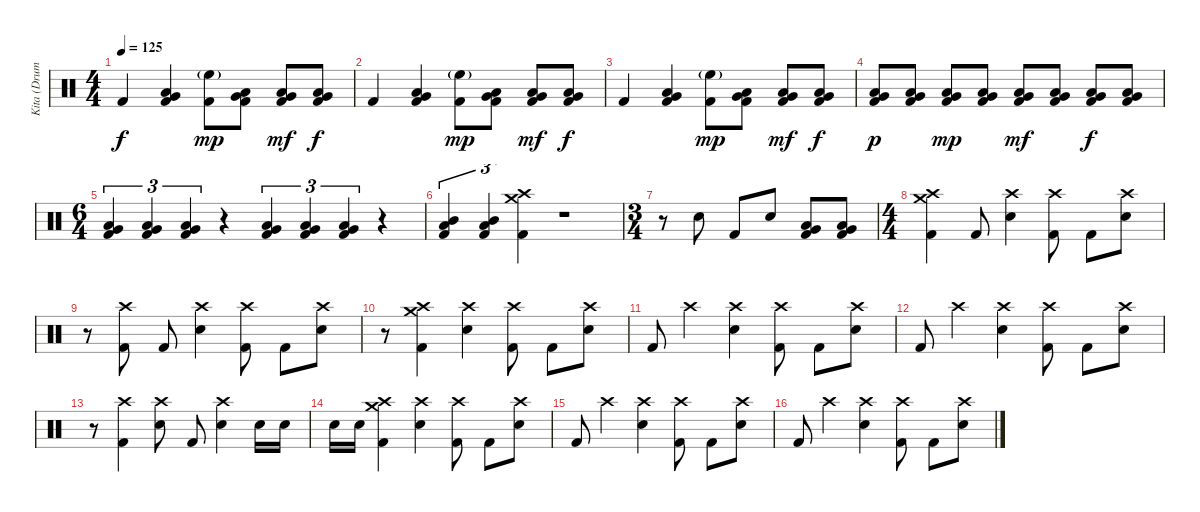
\track ("Kita (Drums)" "Kita (Drum") {instrument percussion}
\staff {score}
\articulation defaults
\ts (4 4)
\tempo 125
\clef neutral
\ks c "Kick (hit) 2".4{dy f}
("Very Low Tom (hit)" "Low Tom (hit)" "Kick (hit) 2").4 ("High Floor Tom (hit)"{g} "Kick (hit) 2").8{dy mp} ("Very Low Tom (hit)" "Low Tom (hit)" "Kick (hit) 2").8 ("Very Low Tom (hit)" "Low Tom (hit)" "Kick (hit) 2").8{dy mf} ("Low Floor Tom (hit)" "Very Low Tom (hit)" "Kick (hit) 2").8{dy f} |
"Kick (hit) 2".4 ("Very Low Tom (hit)" "Low Tom (hit)" "Kick (hit) 2").4 ("High Floor Tom (hit)"{g} "Kick (hit) 2").8{dy mp} ("Very Low Tom (hit)" "Low Tom (hit)" "Kick (hit) 2").8 ("Very Low Tom (hit)" "Low Tom (hit)" "Kick (hit) 2").8{dy mf} ("Low Floor Tom (hit)" "Very Low Tom (hit)" "Kick (hit) 2").8{dy f} |
"Kick (hit) 2".4 ("Very Low Tom (hit)" "Low Tom (hit)" "Kick (hit) 2").4 ("High Floor Tom (hit)"{g} "Kick (hit) 2").8{dy mp} ("Very Low Tom (hit)" "Low Tom (hit)" "Kick (hit) 2").8 ("Very Low Tom (hit)" "Low Tom (hit)" "Kick (hit) 2").8{dy mf} ("Low Floor Tom (hit)" "Very Low Tom (hit)" "Kick (hit) 2").8{dy f} |
("Low Floor Tom (hit)" "Very Low Tom (hit)" "Kick (hit) 2").8{dy p} ("Low Floor Tom (hit)" "Very Low Tom (hit)" "Kick (hit) 2").8 ("Low Floor Tom (hit)" "Very Low Tom (hit)" "Kick (hit) 2").8{dy mp} ("Low Floor Tom (hit)" "Very Low Tom (hit)" "Kick (hit) 2").8 ("Low Floor Tom (hit)" "Very Low Tom (hit)" "Kick (hit) 2").8{dy mf} ("Low Floor Tom (hit)" "Very Low Tom (hit)" "Kick (hit) 2").8 ("Low Floor Tom (hit)" "Very Low Tom (hit)" "Kick (hit) 2").8{dy f} ("Low Floor Tom (hit)" "Very Low Tom (hit)" "Kick (hit) 2").8 |
\ts (6 4)
("Low Floor Tom (hit)" "Very Low Tom (hit)" "Kick (hit) 2").4{tu (3 2)} ("Low Floor Tom (hit)" "Very Low Tom (hit)" "Kick (hit) 2").4{tu (3 2)} ("Low Floor Tom (hit)" "Very Low Tom (hit)" "Kick (hit) 2").4{tu (3 2)} r.4 ("Very Low Tom (hit)" "Low Tom (hit)" "Kick (hit) 2").4{tu (3 2)} ("Very Low Tom (hit)" "Low Tom (hit)" "Kick (hit) 2").4{tu (3 2)} ("Very Low Tom (hit)" "Low Tom (hit)" "Kick (hit) 2").4{tu (3 2)} r.4 |
("Low Tom (hit)" "Mid Tom (hit)" "Kick (hit) 2").4{tu (3 2)} ("Low Tom (hit)" "Mid Tom (hit)" "Kick (hit) 2").4{tu (3 2)} ("Crash medium (hit)" "Crash high (hit)" "Kick (hit) 2").4{tu (3 2)} r.1 |
\ts (3 4)
r.8 "Electric Snare (hit)".8 "Kick (hit) 2".8 "Electric Snare (hit)".8 ("Low Floor Tom (hit)" "Very Low Tom (hit)" "Kick (hit) 2").8 ("Low Floor Tom (hit)" "Very Low Tom (hit)" "Kick (hit) 2").8 |
\ts (4 4)
("Crash medium (hit)" "Crash high (hit)" "Kick (hit) 2").4 "Kick (hit) 2".8 ("Crash high (hit)" "Electric Snare (hit)").4 ("Crash high (hit)" "Kick (hit) 2").8 "Kick (hit) 2".8 ("Crash high (hit)" "Electric Snare (hit)").8 |
r.8 ("Crash high (hit)" "Kick (hit) 2").8 "Kick (hit) 2".8 ("Crash high (hit)" "Electric Snare (hit)").4 ("Crash high (hit)" "Kick (hit) 2").8 "Kick (hit) 2".8 ("Crash high (hit)" "Electric Snare (hit)").8 |
r.8 ("Crash medium (hit)" "Crash high (hit)" "Kick (hit) 2").4 ("Crash high (hit)" "Electric Snare (hit)").4 ("Crash high (hit)" "Kick (hit) 2").8 "Kick (hit) 2".8 ("Crash high (hit)" "Electric Snare (hit)").8 |
"Kick (hit) 2".8 "Crash high (hit)".4 ("Crash high (hit)" "Electric Snare (hit)").4 ("Crash high (hit)" "Kick (hit) 2").8 "Kick (hit) 2".8 ("Crash high (hit)" "Electric Snare (hit)").8 |
"Kick (hit) 2".8 "Crash high (hit)".4 ("Crash high (hit)" "Electric Snare (hit)").4 ("Crash high (hit)" "Kick (hit) 2").8 "Kick (hit) 2".8 ("Crash high (hit)" "Electric Snare (hit)").8 |
r.8 ("Crash high (hit)" "Kick (hit) 2").4 ("Crash high (hit)" "Electric Snare (hit)").8 "Kick (hit) 2".8 ("Crash high (hit)" "Electric Snare (hit)").4 "Electric Snare (hit)".16 "Electric Snare (hit)".16 |
"Electric Snare (hit)".16 "Electric Snare (hit)".16 ("Crash medium (hit)" "Crash high (hit)" "Kick (hit) 2").4 ("Crash high (hit)" "Electric Snare (hit)").4 ("Crash high (hit)" "Kick (hit) 2").8 "Kick (hit) 2".8 ("Crash high (hit)" "Electric Snare (hit)").8 |
"Kick (hit) 2".8 "Crash high (hit)".4 ("Crash high (hit)" "Electric Snare (hit)").4 ("Crash high (hit)" "Kick (hit) 2").8 "Kick (hit) 2".8 ("Crash high (hit)" "Electric Snare (hit)").8 |
"Kick (hit) 2".8 "Crash high (hit)".4 ("Crash high (hit)" "Electric Snare (hit)").4 ("Crash high (hit)" "Kick (hit) 2").8 "Kick (hit) 2".8 ("Crash high (hit)" "Electric Snare (hit)").8
